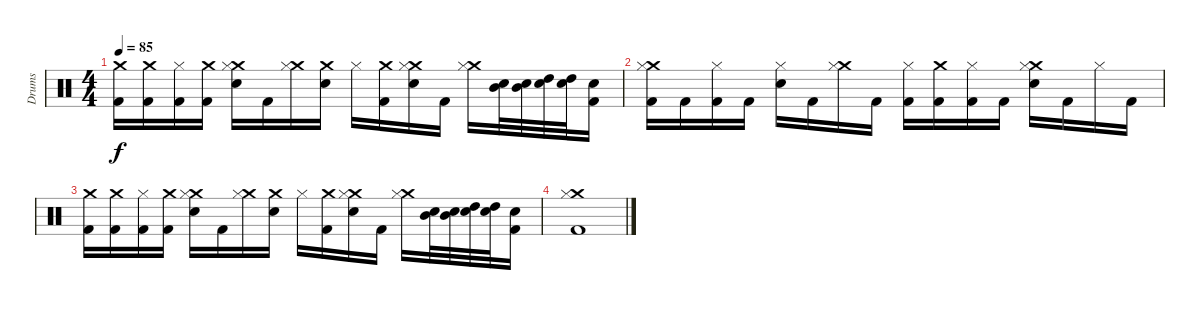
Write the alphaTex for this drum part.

\track ("Drums" "Drums") {instrument percussion}
\staff {score}
\articulation defaults
\ts (4 4)
\tempo 85
\clef neutral
\ks c
("Crash medium (hit)" "Kick (hit) 2").16{dy f} ("Crash medium (hit)" "Kick (hit) 2").16 ("Hi-Hat (closed)" "Kick (hit) 2").16 ("Crash medium (hit)" "Kick (hit) 2").16 ("Crash medium (hit)" "Hi-Hat (closed)" "Snare (hit) 2").16 "Kick (hit) 2".16 ("Crash medium (hit)" "Hi-Hat (closed)").16 ("Crash medium (hit)" "Snare (hit) 2").16 "Hi-Hat (closed)".16 ("Crash medium (hit)" "Kick (hit) 2").16 ("Crash medium (hit)" "Hi-Hat (closed)" "Snare (hit) 2").16 "Kick (hit) 2".16 ("Crash medium (hit)" "Hi-Hat (closed)").16 ("Mid Tom (hit)" "Snare (hit) 2").32 ("Mid Tom (hit)" "Snare (hit) 2").32 ("High Tom (hit)" "Snare (hit) 2").32 ("High Tom (hit)" "Snare (hit) 2").32 ("Snare (hit) 2" "Kick (hit) 2").16 |
("Crash medium (hit)" "Hi-Hat (closed)" "Kick (hit) 2").16 "Kick (hit) 2".16 ("Hi-Hat (closed)" "Kick (hit) 2").16 "Kick (hit) 2".16 ("Hi-Hat (closed)" "Snare (hit) 2").16 "Kick (hit) 2".16 ("Crash medium (hit)" "Hi-Hat (closed)").16 "Kick (hit) 2".16 ("Hi-Hat (closed)" "Kick (hit) 2").16 ("Crash medium (hit)" "Kick (hit) 2").16 ("Hi-Hat (closed)" "Kick (hit) 2").16 "Kick (hit) 2".16 ("Crash medium (hit)" "Hi-Hat (closed)" "Snare (hit) 2").16 "Kick (hit) 2".16 "Hi-Hat (closed)".16 "Kick (hit) 2".16 |
("Crash medium (hit)" "Kick (hit) 2").16 ("Crash medium (hit)" "Kick (hit) 2").16 ("Hi-Hat (closed)" "Kick (hit) 2").16 ("Crash medium (hit)" "Kick (hit) 2").16 ("Crash medium (hit)" "Hi-Hat (closed)" "Snare (hit) 2").16 "Kick (hit) 2".16 ("Crash medium (hit)" "Hi-Hat (closed)").16 ("Crash medium (hit)" "Snare (hit) 2").16 "Hi-Hat (closed)".16 ("Crash medium (hit)" "Kick (hit) 2").16 ("Crash medium (hit)" "Hi-Hat (closed)" "Snare (hit) 2").16 "Kick (hit) 2".16 ("Crash medium (hit)" "Hi-Hat (closed)").16 ("Mid Tom (hit)" "Snare (hit) 2").32 ("Mid Tom (hit)" "Snare (hit) 2").32 ("High Tom (hit)" "Snare (hit) 2").32 ("High Tom (hit)" "Snare (hit) 2").32 ("Snare (hit) 2" "Kick (hit) 2").16 |
("Crash medium (hit)" "Hi-Hat (closed)" "Kick (hit) 2").1
